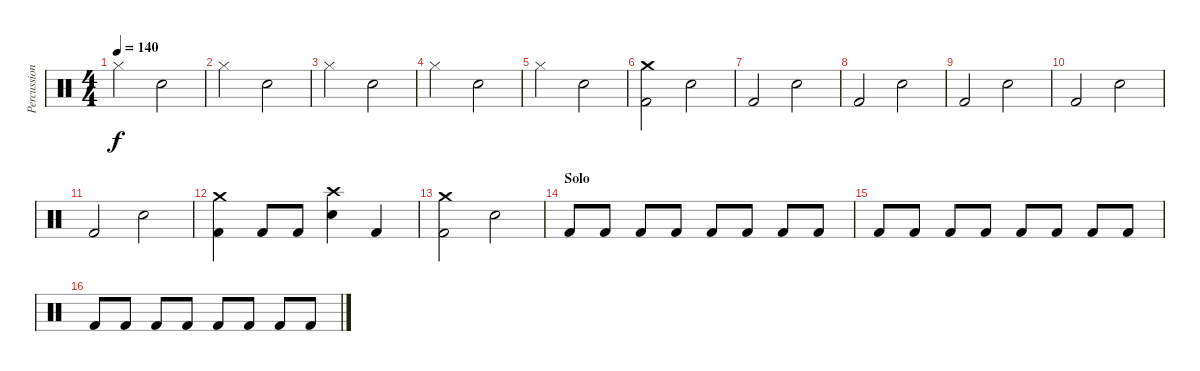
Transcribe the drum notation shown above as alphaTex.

\track ("Percussion" "Percussion") {instrument percussion}
\staff {score}
\articulation defaults
\ts (4 4)
\tempo 140
\clef neutral
\ks c "Hi-Hat (closed)".2{dy f} "Snare (hit) 2".2
|
"Hi-Hat (closed)".2 "Snare (hit) 2".2 |
"Hi-Hat (closed)".2 "Snare (hit) 2".2 |
"Hi-Hat (closed)".2 "Snare (hit) 2".2 |
"Hi-Hat (closed)".2 "Snare (hit) 2".2 |
("Crash medium (hit)" "Kick (hit) 2").2 "Snare (hit) 2".2 |
"Kick (hit) 2".2 "Snare (hit) 2".2 |
"Kick (hit) 2".2 "Snare (hit) 2".2 |
"Kick (hit) 2".2 "Snare (hit) 2".2 |
"Kick (hit) 2".2 "Snare (hit) 2".2 |
"Kick (hit) 2".2 "Snare (hit) 2".2 |
("Crash medium (hit)" "Kick (hit) 2").4 "Kick (hit) 2".8 "Kick (hit) 2".8 ("Crash high (hit)" "Snare (hit) 2").4 "Kick (hit) 2".4 |
("Crash medium (hit)" "Kick (hit) 2").2 "Snare (hit) 2".2 |
\section ("" "Solo")
"Kick (hit) 2".8 "Kick (hit) 2".8 "Kick (hit) 2".8 "Kick (hit) 2".8 "Kick (hit) 2".8 "Kick (hit) 2".8 "Kick (hit) 2".8 "Kick (hit) 2".8 |
"Kick (hit) 2".8 "Kick (hit) 2".8 "Kick (hit) 2".8 "Kick (hit) 2".8 "Kick (hit) 2".8 "Kick (hit) 2".8 "Kick (hit) 2".8 "Kick (hit) 2".8 |
"Kick (hit) 2".8 "Kick (hit) 2".8 "Kick (hit) 2".8 "Kick (hit) 2".8 "Kick (hit) 2".8 "Kick (hit) 2".8 "Kick (hit) 2".8 "Kick (hit) 2".8
